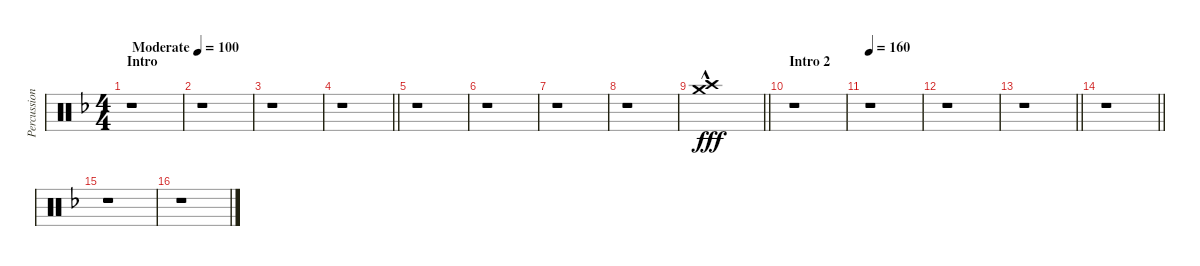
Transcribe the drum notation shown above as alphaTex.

\track ("Percussion" "Percussion") {instrument percussion}
\staff {score}
\articulation defaults
\ts (4 4)
\section ("" "Intro")
\tempo (100 "Moderate")
\clef neutral
\ks dminor
r.1{dy fff} |
r.1 |
r.1 |
\barLineRight lightlight
r.1 |
\section ("" "")
r.1 |
r.1 |
r.1 |
r.1 |
\barLineRight lightlight
("Crash high (hit)"{hac} "Crash medium (hit)").1{volume 16} |
\section ("" "Intro 2")
r.1 |
\tempo 160
r.1 |
r.1 |
\barLineRight lightlight
r.1 |
\barLineRight lightlight
r.1 |
\section ("" "")
r.1 |
r.1
